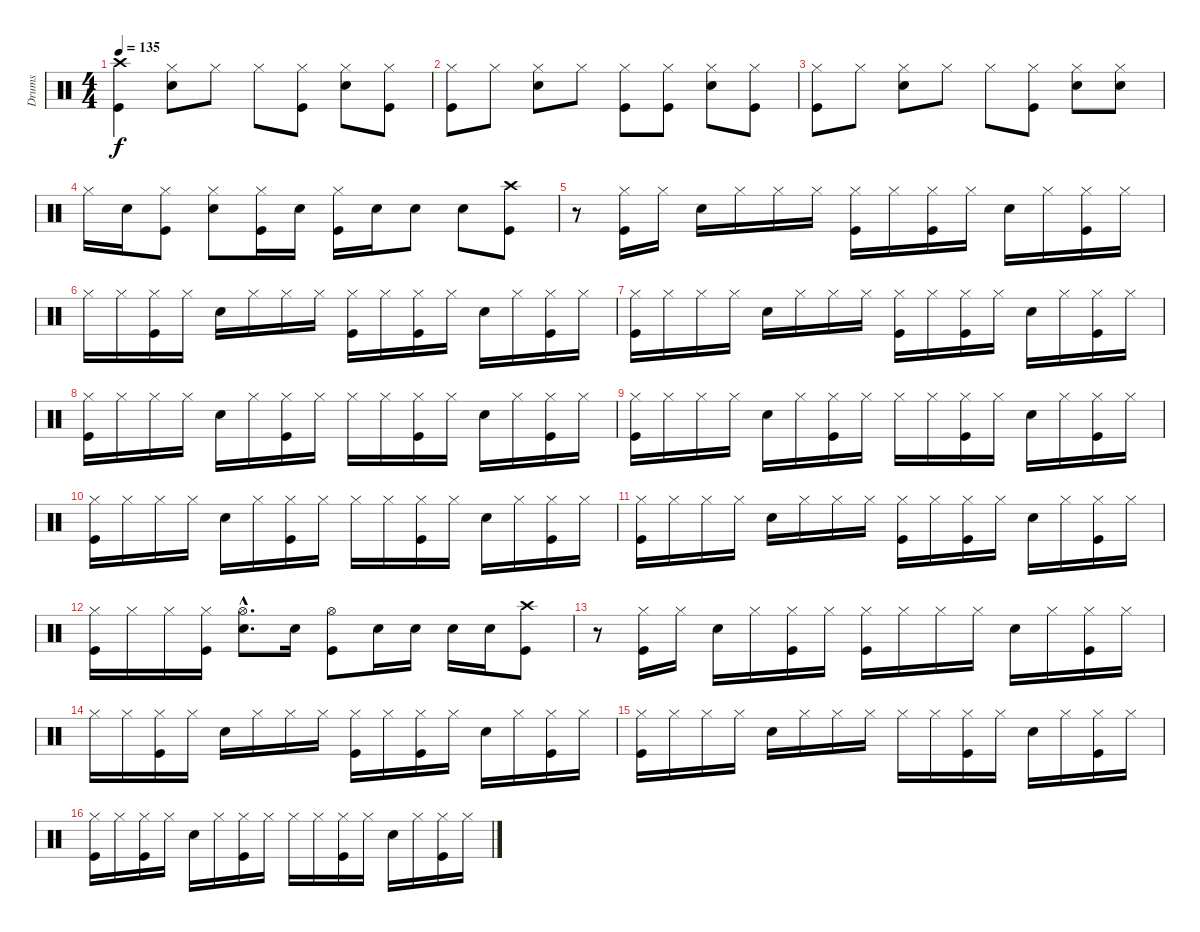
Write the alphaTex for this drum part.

\track ("Drums" "Drums") {instrument percussion}
\staff {score}
\articulation defaults
\ts (4 4)
\tempo 135
\clef neutral
\ks c
("Kick (hit)" "Crash high (hit)").4{dy f} ("Electric Snare (hit)" "Hi-Hat (closed)").8 "Hi-Hat (closed)".8 "Hi-Hat (closed)".8 ("Kick (hit)" "Hi-Hat (closed)").8 ("Electric Snare (hit)" "Hi-Hat (closed)").8 ("Kick (hit)" "Hi-Hat (closed)").8 |
("Kick (hit)" "Hi-Hat (closed)").8 "Hi-Hat (closed)".8 ("Electric Snare (hit)" "Hi-Hat (closed)").8 "Hi-Hat (closed)".8 ("Kick (hit)" "Hi-Hat (closed)").8 ("Kick (hit)" "Hi-Hat (closed)").8 ("Electric Snare (hit)" "Hi-Hat (closed)").8 ("Kick (hit)" "Hi-Hat (closed)").8 |
("Kick (hit)" "Hi-Hat (closed)").8 "Hi-Hat (closed)".8 ("Electric Snare (hit)" "Hi-Hat (closed)").8 "Hi-Hat (closed)".8 "Hi-Hat (closed)".8 ("Kick (hit)" "Hi-Hat (closed)").8 ("Electric Snare (hit)" "Hi-Hat (closed)").8 ("Electric Snare (hit)" "Hi-Hat (closed)").8 |
"Hi-Hat (closed)".16 "Electric Snare (hit)".16 ("Kick (hit)" "Hi-Hat (closed)").8 ("Electric Snare (hit)" "Hi-Hat (closed)").8 ("Kick (hit)" "Hi-Hat (closed)").16 "Electric Snare (hit)".16 ("Kick (hit)" "Hi-Hat (closed)").16 "Electric Snare (hit)".16 "Electric Snare (hit)".8 "Electric Snare (hit)".8 ("Kick (hit)" "Crash high (hit)").8 |
r.8 ("Kick (hit)" "Hi-Hat (closed)").16 "Hi-Hat (closed)".16 "Electric Snare (hit)".16 "Hi-Hat (closed)".16 "Hi-Hat (closed)".16 "Hi-Hat (closed)".16 ("Kick (hit)" "Hi-Hat (closed)").16 "Hi-Hat (closed)".16 ("Kick (hit)" "Hi-Hat (closed)").16 "Hi-Hat (closed)".16 "Electric Snare (hit)".16 "Hi-Hat (closed)".16 ("Kick (hit)" "Hi-Hat (closed)").16 "Hi-Hat (closed)".16 |
"Hi-Hat (closed)".16 "Hi-Hat (closed)".16 ("Kick (hit)" "Hi-Hat (closed)").16 "Hi-Hat (closed)".16 "Electric Snare (hit)".16 "Hi-Hat (closed)".16 "Hi-Hat (closed)".16 "Hi-Hat (closed)".16 ("Kick (hit)" "Hi-Hat (closed)").16 "Hi-Hat (closed)".16 ("Kick (hit)" "Hi-Hat (closed)").16 "Hi-Hat (closed)".16 "Electric Snare (hit)".16 "Hi-Hat (closed)".16 ("Kick (hit)" "Hi-Hat (closed)").16 "Hi-Hat (closed)".16 |
("Hi-Hat (closed)" "Kick (hit)").16 "Hi-Hat (closed)".16 "Hi-Hat (closed)".16 "Hi-Hat (closed)".16 "Electric Snare (hit)".16 "Hi-Hat (closed)".16 "Hi-Hat (closed)".16 "Hi-Hat (closed)".16 ("Kick (hit)" "Hi-Hat (closed)").16 "Hi-Hat (closed)".16 ("Kick (hit)" "Hi-Hat (closed)").16 "Hi-Hat (closed)".16 "Electric Snare (hit)".16 "Hi-Hat (closed)".16 ("Kick (hit)" "Hi-Hat (closed)").16 "Hi-Hat (closed)".16 |
("Kick (hit)" "Hi-Hat (closed)").16 "Hi-Hat (closed)".16 "Hi-Hat (closed)".16 "Hi-Hat (closed)".16 "Electric Snare (hit)".16 "Hi-Hat (closed)".16 ("Kick (hit)" "Hi-Hat (closed)").16 "Hi-Hat (closed)".16 "Hi-Hat (closed)".16 "Hi-Hat (closed)".16 ("Kick (hit)" "Hi-Hat (closed)").16 "Hi-Hat (closed)".16 "Electric Snare (hit)".16 "Hi-Hat (closed)".16 ("Kick (hit)" "Hi-Hat (closed)").16 "Hi-Hat (closed)".16 |
("Kick (hit)" "Hi-Hat (closed)").16 "Hi-Hat (closed)".16 "Hi-Hat (closed)".16 "Hi-Hat (closed)".16 "Electric Snare (hit)".16 "Hi-Hat (closed)".16 ("Kick (hit)" "Hi-Hat (closed)").16 "Hi-Hat (closed)".16 "Hi-Hat (closed)".16 "Hi-Hat (closed)".16 ("Kick (hit)" "Hi-Hat (closed)").16 "Hi-Hat (closed)".16 "Electric Snare (hit)".16 "Hi-Hat (closed)".16 ("Kick (hit)" "Hi-Hat (closed)").16 "Hi-Hat (closed)".16 |
("Kick (hit)" "Hi-Hat (closed)").16 "Hi-Hat (closed)".16 "Hi-Hat (closed)".16 "Hi-Hat (closed)".16 "Electric Snare (hit)".16 "Hi-Hat (closed)".16 ("Kick (hit)" "Hi-Hat (closed)").16 "Hi-Hat (closed)".16 "Hi-Hat (closed)".16 "Hi-Hat (closed)".16 ("Kick (hit)" "Hi-Hat (closed)").16 "Hi-Hat (closed)".16 "Electric Snare (hit)".16 "Hi-Hat (closed)".16 ("Kick (hit)" "Hi-Hat (closed)").16 "Hi-Hat (closed)".16 |
("Kick (hit)" "Hi-Hat (closed)").16 "Hi-Hat (closed)".16 "Hi-Hat (closed)".16 "Hi-Hat (closed)".16 "Electric Snare (hit)".16 "Hi-Hat (closed)".16 "Hi-Hat (closed)".16 "Hi-Hat (closed)".16 ("Kick (hit)" "Hi-Hat (closed)").16 "Hi-Hat (closed)".16 ("Kick (hit)" "Hi-Hat (closed)").16 "Hi-Hat (closed)".16 "Electric Snare (hit)".16 "Hi-Hat (closed)".16 ("Kick (hit)" "Hi-Hat (closed)").16 "Hi-Hat (closed)".16 |
("Kick (hit)" "Hi-Hat (closed)").16 "Hi-Hat (closed)".16 "Hi-Hat (closed)".16 ("Kick (hit)" "Hi-Hat (closed)").16 ("Electric Snare (hit)"{hac} "Hi-Hat (open)"{hac}).8{d} "Electric Snare (hit)".16 ("Kick (hit)" "Hi-Hat (open)").8 "Electric Snare (hit)".16 "Electric Snare (hit)".16 "Electric Snare (hit)".16 "Electric Snare (hit)".16 ("Kick (hit)" "Crash high (hit)").8 |
r.8 ("Kick (hit)" "Hi-Hat (closed)").16 "Hi-Hat (closed)".16 "Electric Snare (hit)".16 "Hi-Hat (closed)".16 ("Kick (hit)" "Hi-Hat (closed)").16 "Hi-Hat (closed)".16 ("Kick (hit)" "Hi-Hat (closed)").16 "Hi-Hat (closed)".16 "Hi-Hat (closed)".16 "Hi-Hat (closed)".16 "Electric Snare (hit)".16 "Hi-Hat (closed)".16 ("Kick (hit)" "Hi-Hat (closed)").16 "Hi-Hat (closed)".16 |
"Hi-Hat (closed)".16 "Hi-Hat (closed)".16 ("Kick (hit)" "Hi-Hat (closed)").16 "Hi-Hat (closed)".16 "Electric Snare (hit)".16 "Hi-Hat (closed)".16 "Hi-Hat (closed)".16 "Hi-Hat (closed)".16 ("Kick (hit)" "Hi-Hat (closed)").16 "Hi-Hat (closed)".16 ("Kick (hit)" "Hi-Hat (closed)").16 "Hi-Hat (closed)".16 "Electric Snare (hit)".16 "Hi-Hat (closed)".16 ("Kick (hit)" "Hi-Hat (closed)").16 "Hi-Hat (closed)".16 |
("Kick (hit)" "Hi-Hat (closed)").16 "Hi-Hat (closed)".16 "Hi-Hat (closed)".16 "Hi-Hat (closed)".16 "Electric Snare (hit)".16 "Hi-Hat (closed)".16 "Hi-Hat (closed)".16 "Hi-Hat (closed)".16 "Hi-Hat (closed)".16 "Hi-Hat (closed)".16 ("Kick (hit)" "Hi-Hat (closed)").16 "Hi-Hat (closed)".16 "Electric Snare (hit)".16 "Hi-Hat (closed)".16 ("Kick (hit)" "Hi-Hat (closed)").16 "Hi-Hat (closed)".16 |
("Kick (hit)" "Hi-Hat (closed)").16 "Hi-Hat (closed)".16 ("Kick (hit)" "Hi-Hat (closed)").16 "Hi-Hat (closed)".16 "Electric Snare (hit)".16 "Hi-Hat (closed)".16 ("Kick (hit)" "Hi-Hat (closed)").16 "Hi-Hat (closed)".16 "Hi-Hat (closed)".16 "Hi-Hat (closed)".16 ("Kick (hit)" "Hi-Hat (closed)").16 "Hi-Hat (closed)".16 "Electric Snare (hit)".16 "Hi-Hat (closed)".16 ("Kick (hit)" "Hi-Hat (closed)").16 "Hi-Hat (closed)".16
